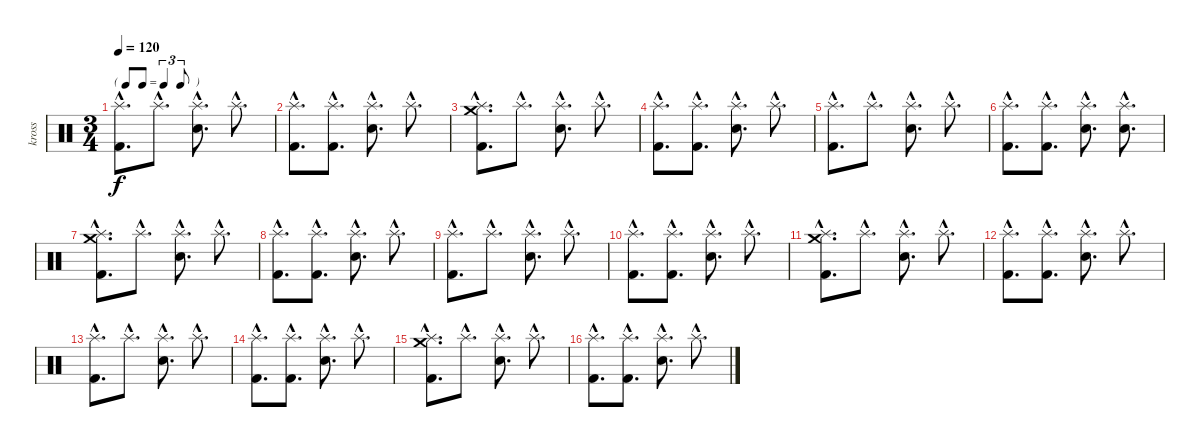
\track ("kross" "kross") {instrument percussion}
\staff {score}
\articulation defaults
\ts (3 4)
\tf triplet8th
\tempo 120
\clef neutral
\ks c
("Splash (hit)"{hac} "Kick (hit) 2"{hac}).8{d dy f} "Splash (hit)"{hac}.8{d} ("Electric Snare (hit)"{hac} "Splash (hit)"{hac}).8{d} "Splash (hit)"{hac}.8{d} |
("Splash (hit)"{hac} "Kick (hit) 2"{hac}).8{d} ("Splash (hit)"{hac} "Kick (hit) 2"{hac}).8{d} ("Electric Snare (hit)"{hac} "Splash (hit)"{hac}).8{d} "Splash (hit)"{hac}.8{d} |
("Splash (hit)"{hac} "Crash medium (hit)"{hac} "Kick (hit) 2"{hac}).8{d} "Splash (hit)"{hac}.8{d} ("Electric Snare (hit)"{hac} "Splash (hit)"{hac}).8{d} "Splash (hit)"{hac}.8{d} |
("Splash (hit)"{hac} "Kick (hit) 2"{hac}).8{d} ("Splash (hit)"{hac} "Kick (hit) 2"{hac}).8{d} ("Electric Snare (hit)"{hac} "Splash (hit)"{hac}).8{d} "Splash (hit)"{hac}.8{d} |
("Splash (hit)"{hac} "Kick (hit) 2"{hac}).8{d} "Splash (hit)"{hac}.8{d} ("Electric Snare (hit)"{hac} "Splash (hit)"{hac}).8{d} "Splash (hit)"{hac}.8{d} |
("Splash (hit)"{hac} "Kick (hit) 2"{hac}).8{d} ("Splash (hit)"{hac} "Kick (hit) 2"{hac}).8{d} ("Electric Snare (hit)"{hac} "Splash (hit)"{hac}).8{d} ("Electric Snare (hit)"{hac} "Splash (hit)"{hac}).8{d} |
("Splash (hit)"{hac} "Crash medium (hit)"{hac} "Kick (hit) 2"{hac}).8{d} "Splash (hit)"{hac}.8{d} ("Electric Snare (hit)"{hac} "Splash (hit)"{hac}).8{d} "Splash (hit)"{hac}.8{d} |
("Splash (hit)"{hac} "Kick (hit) 2"{hac}).8{d} ("Splash (hit)"{hac} "Kick (hit) 2"{hac}).8{d} ("Electric Snare (hit)"{hac} "Splash (hit)"{hac}).8{d} "Splash (hit)"{hac}.8{d} |
("Splash (hit)"{hac} "Kick (hit) 2"{hac}).8{d} "Splash (hit)"{hac}.8{d} ("Electric Snare (hit)"{hac} "Splash (hit)"{hac}).8{d} "Splash (hit)"{hac}.8{d} |
("Splash (hit)"{hac} "Kick (hit) 2"{hac}).8{d} ("Splash (hit)"{hac} "Kick (hit) 2"{hac}).8{d} ("Electric Snare (hit)"{hac} "Splash (hit)"{hac}).8{d} "Splash (hit)"{hac}.8{d} |
("Splash (hit)"{hac} "Crash medium (hit)"{hac} "Kick (hit) 2"{hac}).8{d} "Splash (hit)"{hac}.8{d} ("Electric Snare (hit)"{hac} "Splash (hit)"{hac}).8{d} "Splash (hit)"{hac}.8{d} |
("Splash (hit)"{hac} "Kick (hit) 2"{hac}).8{d} ("Splash (hit)"{hac} "Kick (hit) 2"{hac}).8{d} ("Electric Snare (hit)"{hac} "Splash (hit)"{hac}).8{d} "Splash (hit)"{hac}.8{d} |
("Splash (hit)"{hac} "Kick (hit) 2"{hac}).8{d} "Splash (hit)"{hac}.8{d} ("Electric Snare (hit)"{hac} "Splash (hit)"{hac}).8{d} "Splash (hit)"{hac}.8{d} |
("Splash (hit)"{hac} "Kick (hit) 2"{hac}).8{d} ("Splash (hit)"{hac} "Kick (hit) 2"{hac}).8{d} ("Electric Snare (hit)"{hac} "Splash (hit)"{hac}).8{d} "Splash (hit)"{hac}.8{d} |
("Splash (hit)"{hac} "Crash medium (hit)"{hac} "Kick (hit) 2"{hac}).8{d} "Splash (hit)"{hac}.8{d} ("Electric Snare (hit)"{hac} "Splash (hit)"{hac}).8{d} "Splash (hit)"{hac}.8{d} |
("Splash (hit)"{hac} "Kick (hit) 2"{hac}).8{d} ("Splash (hit)"{hac} "Kick (hit) 2"{hac}).8{d} ("Electric Snare (hit)"{hac} "Splash (hit)"{hac}).8{d} "Splash (hit)"{hac}.8{d}
